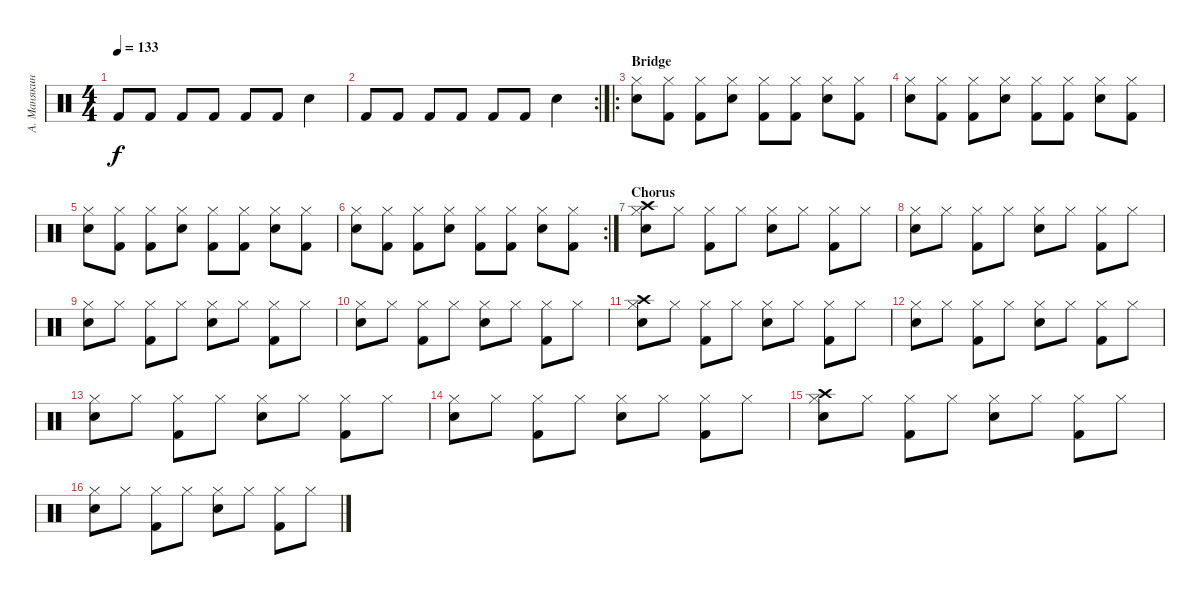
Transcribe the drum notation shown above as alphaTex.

\track ("А. Манякин" "А. Манякин") {instrument percussion}
\staff {score}
\articulation defaults
\ts (4 4)
\tempo 133
\clef neutral
\ks c "Kick (hit) 2".8{dy f} "Kick (hit) 2".8 "Kick (hit) 2".8 "Kick (hit) 2".8 "Kick (hit) 2".8 "Kick (hit) 2".8 "Snare (hit) 2".4
|
\rc 2 "Kick (hit) 2".8 "Kick (hit) 2".8 "Kick (hit) 2".8 "Kick (hit) 2".8 "Kick (hit) 2".8 "Kick (hit) 2".8 "Snare (hit) 2".4
|
\ro
\section ("" "Bridge")
("Hi-Hat (closed)" "Snare (hit) 2").8 ("Hi-Hat (closed)" "Kick (hit) 2").8 ("Hi-Hat (closed)" "Kick (hit) 2").8 ("Hi-Hat (closed)" "Snare (hit) 2").8 ("Hi-Hat (closed)" "Kick (hit) 2").8 ("Hi-Hat (closed)" "Kick (hit) 2").8 ("Hi-Hat (closed)" "Snare (hit) 2").8 ("Hi-Hat (closed)" "Kick (hit) 2").8 |
("Hi-Hat (closed)" "Snare (hit) 2").8 ("Hi-Hat (closed)" "Kick (hit) 2").8 ("Hi-Hat (closed)" "Kick (hit) 2").8 ("Hi-Hat (closed)" "Snare (hit) 2").8 ("Hi-Hat (closed)" "Kick (hit) 2").8 ("Hi-Hat (closed)" "Kick (hit) 2").8 ("Hi-Hat (closed)" "Snare (hit) 2").8 ("Hi-Hat (closed)" "Kick (hit) 2").8 |
("Hi-Hat (closed)" "Snare (hit) 2").8 ("Hi-Hat (closed)" "Kick (hit) 2").8 ("Hi-Hat (closed)" "Kick (hit) 2").8 ("Hi-Hat (closed)" "Snare (hit) 2").8 ("Hi-Hat (closed)" "Kick (hit) 2").8 ("Hi-Hat (closed)" "Kick (hit) 2").8 ("Hi-Hat (closed)" "Snare (hit) 2").8 ("Hi-Hat (closed)" "Kick (hit) 2").8 |
\rc 2
("Hi-Hat (closed)" "Snare (hit) 2").8 ("Hi-Hat (closed)" "Kick (hit) 2").8 ("Hi-Hat (closed)" "Kick (hit) 2").8 ("Hi-Hat (closed)" "Snare (hit) 2").8 ("Hi-Hat (closed)" "Kick (hit) 2").8 ("Hi-Hat (closed)" "Kick (hit) 2").8 ("Hi-Hat (closed)" "Snare (hit) 2").8 ("Hi-Hat (closed)" "Kick (hit) 2").8 |
\section ("" "Chorus")
("Hi-Hat (closed)" "Snare (hit) 2" "Crash high (hit)").8 "Hi-Hat (closed)".8 ("Hi-Hat (closed)" "Kick (hit) 2").8 "Hi-Hat (closed)".8 ("Hi-Hat (closed)" "Snare (hit) 2").8 "Hi-Hat (closed)".8 ("Hi-Hat (closed)" "Kick (hit) 2").8 "Hi-Hat (closed)".8 |
("Hi-Hat (closed)" "Snare (hit) 2").8 "Hi-Hat (closed)".8 ("Hi-Hat (closed)" "Kick (hit) 2").8 "Hi-Hat (closed)".8 ("Hi-Hat (closed)" "Snare (hit) 2").8 "Hi-Hat (closed)".8 ("Hi-Hat (closed)" "Kick (hit) 2").8 "Hi-Hat (closed)".8 |
("Hi-Hat (closed)" "Snare (hit) 2").8 "Hi-Hat (closed)".8 ("Hi-Hat (closed)" "Kick (hit) 2").8 "Hi-Hat (closed)".8 ("Hi-Hat (closed)" "Snare (hit) 2").8 "Hi-Hat (closed)".8 ("Hi-Hat (closed)" "Kick (hit) 2").8 "Hi-Hat (closed)".8 |
("Hi-Hat (closed)" "Snare (hit) 2").8 "Hi-Hat (closed)".8 ("Hi-Hat (closed)" "Kick (hit) 2").8 "Hi-Hat (closed)".8 ("Hi-Hat (closed)" "Snare (hit) 2").8 "Hi-Hat (closed)".8 ("Hi-Hat (closed)" "Kick (hit) 2").8 "Hi-Hat (closed)".8 |
("Hi-Hat (closed)" "Snare (hit) 2" "Crash high (hit)").8 "Hi-Hat (closed)".8 ("Hi-Hat (closed)" "Kick (hit) 2").8 "Hi-Hat (closed)".8 ("Hi-Hat (closed)" "Snare (hit) 2").8 "Hi-Hat (closed)".8 ("Hi-Hat (closed)" "Kick (hit) 2").8 "Hi-Hat (closed)".8 |
("Hi-Hat (closed)" "Snare (hit) 2").8 "Hi-Hat (closed)".8 ("Hi-Hat (closed)" "Kick (hit) 2").8 "Hi-Hat (closed)".8 ("Hi-Hat (closed)" "Snare (hit) 2").8 "Hi-Hat (closed)".8 ("Hi-Hat (closed)" "Kick (hit) 2").8 "Hi-Hat (closed)".8 |
("Hi-Hat (closed)" "Snare (hit) 2").8 "Hi-Hat (closed)".8 ("Hi-Hat (closed)" "Kick (hit) 2").8 "Hi-Hat (closed)".8 ("Hi-Hat (closed)" "Snare (hit) 2").8 "Hi-Hat (closed)".8 ("Hi-Hat (closed)" "Kick (hit) 2").8 "Hi-Hat (closed)".8 |
("Hi-Hat (closed)" "Snare (hit) 2").8 "Hi-Hat (closed)".8 ("Hi-Hat (closed)" "Kick (hit) 2").8 "Hi-Hat (closed)".8 ("Hi-Hat (closed)" "Snare (hit) 2").8 "Hi-Hat (closed)".8 ("Hi-Hat (closed)" "Kick (hit) 2").8 "Hi-Hat (closed)".8 |
("Hi-Hat (closed)" "Snare (hit) 2" "Crash high (hit)").8 "Hi-Hat (closed)".8 ("Hi-Hat (closed)" "Kick (hit) 2").8 "Hi-Hat (closed)".8 ("Hi-Hat (closed)" "Snare (hit) 2").8 "Hi-Hat (closed)".8 ("Hi-Hat (closed)" "Kick (hit) 2").8 "Hi-Hat (closed)".8 |
("Hi-Hat (closed)" "Snare (hit) 2").8 "Hi-Hat (closed)".8 ("Hi-Hat (closed)" "Kick (hit) 2").8 "Hi-Hat (closed)".8 ("Hi-Hat (closed)" "Snare (hit) 2").8 "Hi-Hat (closed)".8 ("Hi-Hat (closed)" "Kick (hit) 2").8 "Hi-Hat (closed)".8
